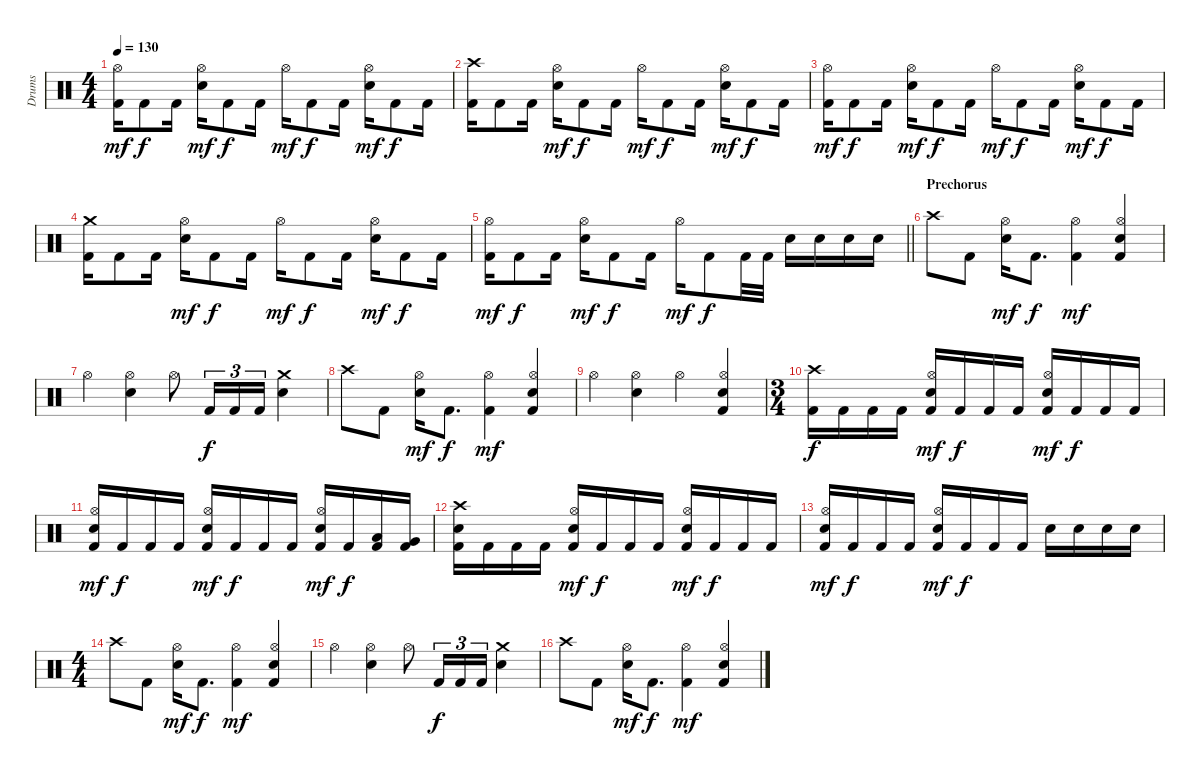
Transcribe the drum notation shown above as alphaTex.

\track ("Drums" "Drums") {instrument percussion}
\staff {score}
\articulation defaults
\ts (4 4)
\tempo 130
\clef neutral
\ks c
("Kick (hit) 2" "Hi-Hat (open)").16{dy mf} "Kick (hit) 2".8{dy f} "Kick (hit) 2".16 ("Hi-Hat (open)" "Electric Snare (hit)").16{dy mf} "Kick (hit) 2".8{dy f} "Kick (hit) 2".16 "Hi-Hat (open)".16{dy mf} "Kick (hit) 2".8{dy f} "Kick (hit) 2".16 ("Hi-Hat (open)" "Electric Snare (hit)").16{dy mf} "Kick (hit) 2".8{dy f} "Kick (hit) 2".16 |
("Kick (hit) 2" "Crash high (hit)").16 "Kick (hit) 2".8 "Kick (hit) 2".16 ("Hi-Hat (open)" "Electric Snare (hit)").16{dy mf} "Kick (hit) 2".8{dy f} "Kick (hit) 2".16 "Hi-Hat (open)".16{dy mf} "Kick (hit) 2".8{dy f} "Kick (hit) 2".16 ("Hi-Hat (open)" "Electric Snare (hit)").16{dy mf} "Kick (hit) 2".8{dy f} "Kick (hit) 2".16 |
("Kick (hit) 2" "Hi-Hat (open)").16{dy mf} "Kick (hit) 2".8{dy f} "Kick (hit) 2".16 ("Hi-Hat (open)" "Electric Snare (hit)").16{dy mf} "Kick (hit) 2".8{dy f} "Kick (hit) 2".16 "Hi-Hat (open)".16{dy mf} "Kick (hit) 2".8{dy f} "Kick (hit) 2".16 ("Hi-Hat (open)" "Electric Snare (hit)").16{dy mf} "Kick (hit) 2".8{dy f} "Kick (hit) 2".16 |
("Kick (hit) 2" "Crash medium (hit)").16 "Kick (hit) 2".8 "Kick (hit) 2".16 ("Hi-Hat (open)" "Electric Snare (hit)").16{dy mf} "Kick (hit) 2".8{dy f} "Kick (hit) 2".16 "Hi-Hat (open)".16{dy mf} "Kick (hit) 2".8{dy f} "Kick (hit) 2".16 ("Hi-Hat (open)" "Electric Snare (hit)").16{dy mf} "Kick (hit) 2".8{dy f} "Kick (hit) 2".16 |
\barLineRight lightlight
("Kick (hit) 2" "Hi-Hat (open)").16{dy mf} "Kick (hit) 2".8{dy f} "Kick (hit) 2".16 ("Hi-Hat (open)" "Electric Snare (hit)").16{dy mf} "Kick (hit) 2".8{dy f} "Kick (hit) 2".16 "Hi-Hat (open)".16{dy mf} "Kick (hit) 2".8{dy f} "Kick (hit) 2".32 "Kick (hit) 2".32 "Electric Snare (hit)".16 "Electric Snare (hit)".16 "Electric Snare (hit)".16 "Electric Snare (hit)".16 |
\section ("" "Prechorus")
"Crash high (hit)".8 "Kick (hit) 2".8 ("Hi-Hat (open)" "Electric Snare (hit)").16{dy mf} "Kick (hit) 2".8{d dy f} ("Kick (hit) 2" "Hi-Hat (open)").4{dy mf} ("Kick (hit) 2" "Hi-Hat (open)" "Electric Snare (hit)").4 |
"Hi-Hat (open)".4 ("Hi-Hat (open)" "Electric Snare (hit)").4 "Hi-Hat (open)".8 "Kick (hit) 2".16{tu (3 2) dy f} "Kick (hit) 2".16{tu (3 2)} "Kick (hit) 2".16{tu (3 2)} ("Crash medium (hit)" "Electric Snare (hit)").4 |
"Crash high (hit)".8 "Kick (hit) 2".8 ("Hi-Hat (open)" "Electric Snare (hit)").16{dy mf} "Kick (hit) 2".8{d dy f} ("Kick (hit) 2" "Hi-Hat (open)").4{dy mf} ("Kick (hit) 2" "Hi-Hat (open)" "Electric Snare (hit)").4 |
"Hi-Hat (open)".4 ("Hi-Hat (open)" "Electric Snare (hit)").4 "Hi-Hat (open)".4 ("Kick (hit) 2" "Hi-Hat (open)" "Electric Snare (hit)").4 |
\ts (3 4)
("Kick (hit) 2" "Crash high (hit)").16{dy f} "Kick (hit) 2".16 "Kick (hit) 2".16 "Kick (hit) 2".16 ("Kick (hit) 2" "Hi-Hat (open)" "Electric Snare (hit)").16{dy mf} "Kick (hit) 2".16{dy f} "Kick (hit) 2".16 "Kick (hit) 2".16 ("Kick (hit) 2" "Hi-Hat (open)" "Electric Snare (hit)").16{dy mf} "Kick (hit) 2".16{dy f} "Kick (hit) 2".16 "Kick (hit) 2".16 |
("Kick (hit) 2" "Hi-Hat (open)" "Electric Snare (hit)").16{dy mf} "Kick (hit) 2".16{dy f} "Kick (hit) 2".16 "Kick (hit) 2".16 ("Kick (hit) 2" "Hi-Hat (open)" "Electric Snare (hit)").16{dy mf} "Kick (hit) 2".16{dy f} "Kick (hit) 2".16 "Kick (hit) 2".16 ("Kick (hit) 2" "Hi-Hat (open)" "Electric Snare (hit)").16{dy mf} "Kick (hit) 2".16{dy f} ("Kick (hit) 2" "Low Tom (hit)").16 ("Kick (hit) 2" "Very Low Tom (hit)").16 |
("Kick (hit) 2" "Crash high (hit)" "Electric Snare (hit)").16 "Kick (hit) 2".16 "Kick (hit) 2".16 "Kick (hit) 2".16 ("Kick (hit) 2" "Hi-Hat (open)" "Electric Snare (hit)").16{dy mf} "Kick (hit) 2".16{dy f} "Kick (hit) 2".16 "Kick (hit) 2".16 ("Kick (hit) 2" "Hi-Hat (open)" "Electric Snare (hit)").16{dy mf} "Kick (hit) 2".16{dy f} "Kick (hit) 2".16 "Kick (hit) 2".16 |
("Kick (hit) 2" "Hi-Hat (open)" "Electric Snare (hit)").16{dy mf} "Kick (hit) 2".16{dy f} "Kick (hit) 2".16 "Kick (hit) 2".16 ("Kick (hit) 2" "Hi-Hat (open)" "Electric Snare (hit)").16{dy mf} "Kick (hit) 2".16{dy f} "Kick (hit) 2".16 "Kick (hit) 2".16 "Electric Snare (hit)".16 "Electric Snare (hit)".16 "Electric Snare (hit)".16 "Electric Snare (hit)".16 |
\ts (4 4)
"Crash high (hit)".8 "Kick (hit) 2".8 ("Hi-Hat (open)" "Electric Snare (hit)").16{dy mf} "Kick (hit) 2".8{d dy f} ("Kick (hit) 2" "Hi-Hat (open)").4{dy mf} ("Kick (hit) 2" "Hi-Hat (open)" "Electric Snare (hit)").4 |
"Hi-Hat (open)".4 ("Hi-Hat (open)" "Electric Snare (hit)").4 "Hi-Hat (open)".8 "Kick (hit) 2".16{tu (3 2) dy f} "Kick (hit) 2".16{tu (3 2)} "Kick (hit) 2".16{tu (3 2)} ("Crash medium (hit)" "Electric Snare (hit)").4 |
"Crash high (hit)".8 "Kick (hit) 2".8 ("Hi-Hat (open)" "Electric Snare (hit)").16{dy mf} "Kick (hit) 2".8{d dy f} ("Kick (hit) 2" "Hi-Hat (open)").4{dy mf} ("Kick (hit) 2" "Hi-Hat (open)" "Electric Snare (hit)").4
